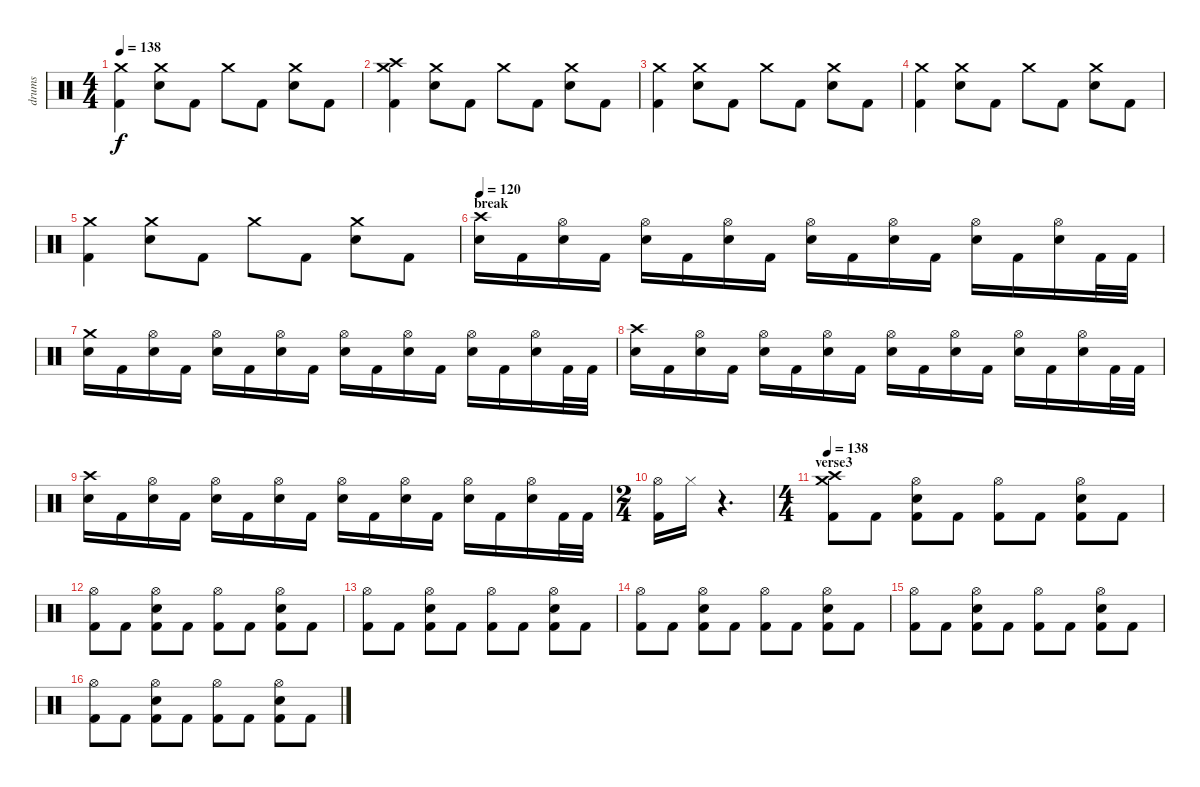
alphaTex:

\track ("drums" "drums") {instrument percussion}
\staff {score}
\articulation defaults
\ts (4 4)
\tempo 138
\clef neutral
\ks c
("Crash medium (hit)" "Kick (hit) 2").4{dy f} ("Crash medium (hit)" "Electric Snare (hit)").8 "Kick (hit) 2".8 "Crash medium (hit)".8 "Kick (hit) 2".8 ("Crash medium (hit)" "Electric Snare (hit)").8 "Kick (hit) 2".8 |
("Crash high (hit)" "Crash medium (hit)" "Kick (hit) 2").4 ("Crash medium (hit)" "Electric Snare (hit)").8 "Kick (hit) 2".8 "Crash medium (hit)".8 "Kick (hit) 2".8 ("Crash medium (hit)" "Electric Snare (hit)").8 "Kick (hit) 2".8 |
("Crash medium (hit)" "Kick (hit) 2").4 ("Crash medium (hit)" "Electric Snare (hit)").8 "Kick (hit) 2".8 "Crash medium (hit)".8 "Kick (hit) 2".8 ("Crash medium (hit)" "Electric Snare (hit)").8 "Kick (hit) 2".8 |
("Crash medium (hit)" "Kick (hit) 2").4 ("Crash medium (hit)" "Electric Snare (hit)").8 "Kick (hit) 2".8 "Crash medium (hit)".8 "Kick (hit) 2".8 ("Crash medium (hit)" "Electric Snare (hit)").8 "Kick (hit) 2".8 |
("Crash medium (hit)" "Kick (hit) 2").4 ("Crash medium (hit)" "Electric Snare (hit)").8 "Kick (hit) 2".8 "Crash medium (hit)".8 "Kick (hit) 2".8 ("Crash medium (hit)" "Electric Snare (hit)").8 "Kick (hit) 2".8 |
\section ("" "break")
\tempo 120
("Crash high (hit)" "Electric Snare (hit)").16 "Kick (hit) 2".16 ("Hi-Hat (open)" "Electric Snare (hit)").16 "Kick (hit) 2".16 ("Hi-Hat (open)" "Electric Snare (hit)").16 "Kick (hit) 2".16 ("Hi-Hat (open)" "Electric Snare (hit)").16 "Kick (hit) 2".16 ("Hi-Hat (open)" "Electric Snare (hit)").16 "Kick (hit) 2".16 ("Hi-Hat (open)" "Electric Snare (hit)").16 "Kick (hit) 2".16 ("Hi-Hat (open)" "Electric Snare (hit)").16 "Kick (hit) 2".16 ("Hi-Hat (open)" "Electric Snare (hit)").16 "Kick (hit) 2".32 "Kick (hit) 2".32 |
("Crash medium (hit)" "Electric Snare (hit)").16 "Kick (hit) 2".16 ("Hi-Hat (open)" "Electric Snare (hit)").16 "Kick (hit) 2".16 ("Hi-Hat (open)" "Electric Snare (hit)").16 "Kick (hit) 2".16 ("Hi-Hat (open)" "Electric Snare (hit)").16 "Kick (hit) 2".16 ("Hi-Hat (open)" "Electric Snare (hit)").16 "Kick (hit) 2".16 ("Hi-Hat (open)" "Electric Snare (hit)").16 "Kick (hit) 2".16 ("Hi-Hat (open)" "Electric Snare (hit)").16 "Kick (hit) 2".16 ("Hi-Hat (open)" "Electric Snare (hit)").16 "Kick (hit) 2".32 "Kick (hit) 2".32 |
("Crash high (hit)" "Electric Snare (hit)").16 "Kick (hit) 2".16 ("Hi-Hat (open)" "Electric Snare (hit)").16 "Kick (hit) 2".16 ("Hi-Hat (open)" "Electric Snare (hit)").16 "Kick (hit) 2".16 ("Hi-Hat (open)" "Electric Snare (hit)").16 "Kick (hit) 2".16 ("Hi-Hat (open)" "Electric Snare (hit)").16 "Kick (hit) 2".16 ("Hi-Hat (open)" "Electric Snare (hit)").16 "Kick (hit) 2".16 ("Hi-Hat (open)" "Electric Snare (hit)").16 "Kick (hit) 2".16 ("Hi-Hat (open)" "Electric Snare (hit)").16 "Kick (hit) 2".32 "Kick (hit) 2".32 |
("Crash high (hit)" "Electric Snare (hit)").16 "Kick (hit) 2".16 ("Hi-Hat (open)" "Electric Snare (hit)").16 "Kick (hit) 2".16 ("Hi-Hat (open)" "Electric Snare (hit)").16 "Kick (hit) 2".16 ("Hi-Hat (open)" "Electric Snare (hit)").16 "Kick (hit) 2".16 ("Hi-Hat (open)" "Electric Snare (hit)").16 "Kick (hit) 2".16 ("Hi-Hat (open)" "Electric Snare (hit)").16 "Kick (hit) 2".16 ("Hi-Hat (open)" "Electric Snare (hit)").16 "Kick (hit) 2".16 ("Hi-Hat (open)" "Electric Snare (hit)").16 "Kick (hit) 2".32 "Kick (hit) 2".32 |
\ts (2 4)
("Hi-Hat (open)" "Kick (hit) 2").16 "Hi-Hat (closed)".16 r.4{d} |
\ts (4 4)
\section ("" "verse3")
\tempo 138
("Crash high (hit)" "Crash medium (hit)" "Kick (hit) 2").8 "Kick (hit) 2".8 ("Hi-Hat (open)" "Electric Snare (hit)" "Kick (hit) 2").8 "Kick (hit) 2".8 ("Hi-Hat (open)" "Kick (hit) 2").8 "Kick (hit) 2".8 ("Hi-Hat (open)" "Electric Snare (hit)" "Kick (hit) 2").8 "Kick (hit) 2".8 |
("Hi-Hat (open)" "Kick (hit) 2").8 "Kick (hit) 2".8 ("Hi-Hat (open)" "Electric Snare (hit)" "Kick (hit) 2").8 "Kick (hit) 2".8 ("Hi-Hat (open)" "Kick (hit) 2").8 "Kick (hit) 2".8 ("Hi-Hat (open)" "Electric Snare (hit)" "Kick (hit) 2").8 "Kick (hit) 2".8 |
("Hi-Hat (open)" "Kick (hit) 2").8 "Kick (hit) 2".8 ("Hi-Hat (open)" "Electric Snare (hit)" "Kick (hit) 2").8 "Kick (hit) 2".8 ("Hi-Hat (open)" "Kick (hit) 2").8 "Kick (hit) 2".8 ("Hi-Hat (open)" "Electric Snare (hit)" "Kick (hit) 2").8 "Kick (hit) 2".8 |
("Hi-Hat (open)" "Kick (hit) 2").8 "Kick (hit) 2".8 ("Hi-Hat (open)" "Electric Snare (hit)" "Kick (hit) 2").8 "Kick (hit) 2".8 ("Hi-Hat (open)" "Kick (hit) 2").8 "Kick (hit) 2".8 ("Hi-Hat (open)" "Electric Snare (hit)" "Kick (hit) 2").8 "Kick (hit) 2".8 |
("Hi-Hat (open)" "Kick (hit) 2").8 "Kick (hit) 2".8 ("Hi-Hat (open)" "Electric Snare (hit)" "Kick (hit) 2").8 "Kick (hit) 2".8 ("Hi-Hat (open)" "Kick (hit) 2").8 "Kick (hit) 2".8 ("Hi-Hat (open)" "Electric Snare (hit)" "Kick (hit) 2").8 "Kick (hit) 2".8 |
("Hi-Hat (open)" "Kick (hit) 2").8 "Kick (hit) 2".8 ("Hi-Hat (open)" "Electric Snare (hit)" "Kick (hit) 2").8 "Kick (hit) 2".8 ("Hi-Hat (open)" "Kick (hit) 2").8 "Kick (hit) 2".8 ("Hi-Hat (open)" "Electric Snare (hit)" "Kick (hit) 2").8 "Kick (hit) 2".8
